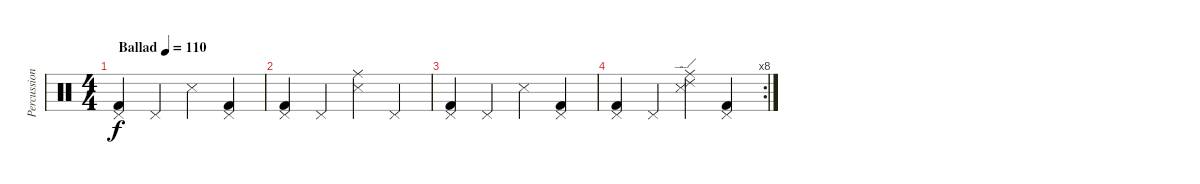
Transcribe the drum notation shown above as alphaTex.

\track ("Percussion" "Percussion") {instrument percussion}
\staff {score}
\articulation defaults
\ts (4 4)
\tempo (110 "Ballad")
\clef neutral
\ks c
("Kick (hit) 2" "Pedal Hi-Hat (hit)").4{dy f} "Pedal Hi-Hat (hit)".4 "Snare (side stick) 3".4 ("Kick (hit) 2" "Pedal Hi-Hat (hit)").4 |
("Kick (hit) 2" "Pedal Hi-Hat (hit)").4 "Pedal Hi-Hat (hit)".4 ("Ride (middle)" "Snare (side stick) 3").4 "Pedal Hi-Hat (hit)".4 |
("Kick (hit) 2" "Pedal Hi-Hat (hit)").4 "Pedal Hi-Hat (hit)".4 "Snare (side stick) 3".4 ("Kick (hit) 2" "Pedal Hi-Hat (hit)").4 |
\rc 8
("Kick (hit) 2" "Pedal Hi-Hat (hit)").4 "Pedal Hi-Hat (hit)".4 ("Ride (middle)" "Snare (side stick) 3" "Ride (edge) 2").4 ("Kick (hit) 2" "Pedal Hi-Hat (hit)").4
